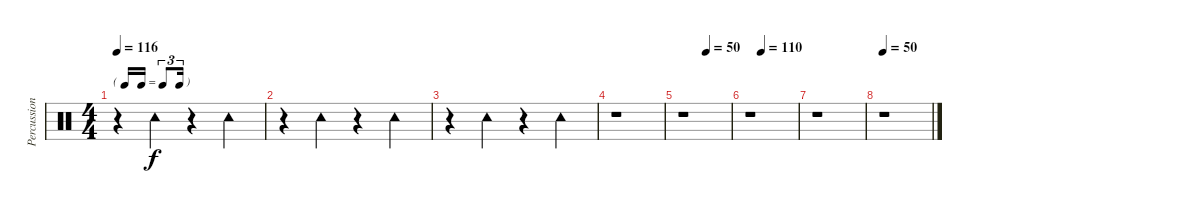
\track ("Percussion" "Percussion") {instrument percussion}
\staff {score}
\articulation defaults
\ts (4 4)
\tf triplet16th
\tempo 116
\clef neutral
\ks c
r.4{dy f} "Tambourine (hit)".4 r.4 "Tambourine (hit)".4 |
r.4 "Tambourine (hit)".4 r.4 "Tambourine (hit)".4 |
r.4 "Tambourine (hit)".4 r.4 "Tambourine (hit)".4 |
r.1 |
\tempo (50 0.5)
r.1 |
\tempo (110 0.25)
r.1 |
r.1 |
\tempo 50
r.1
